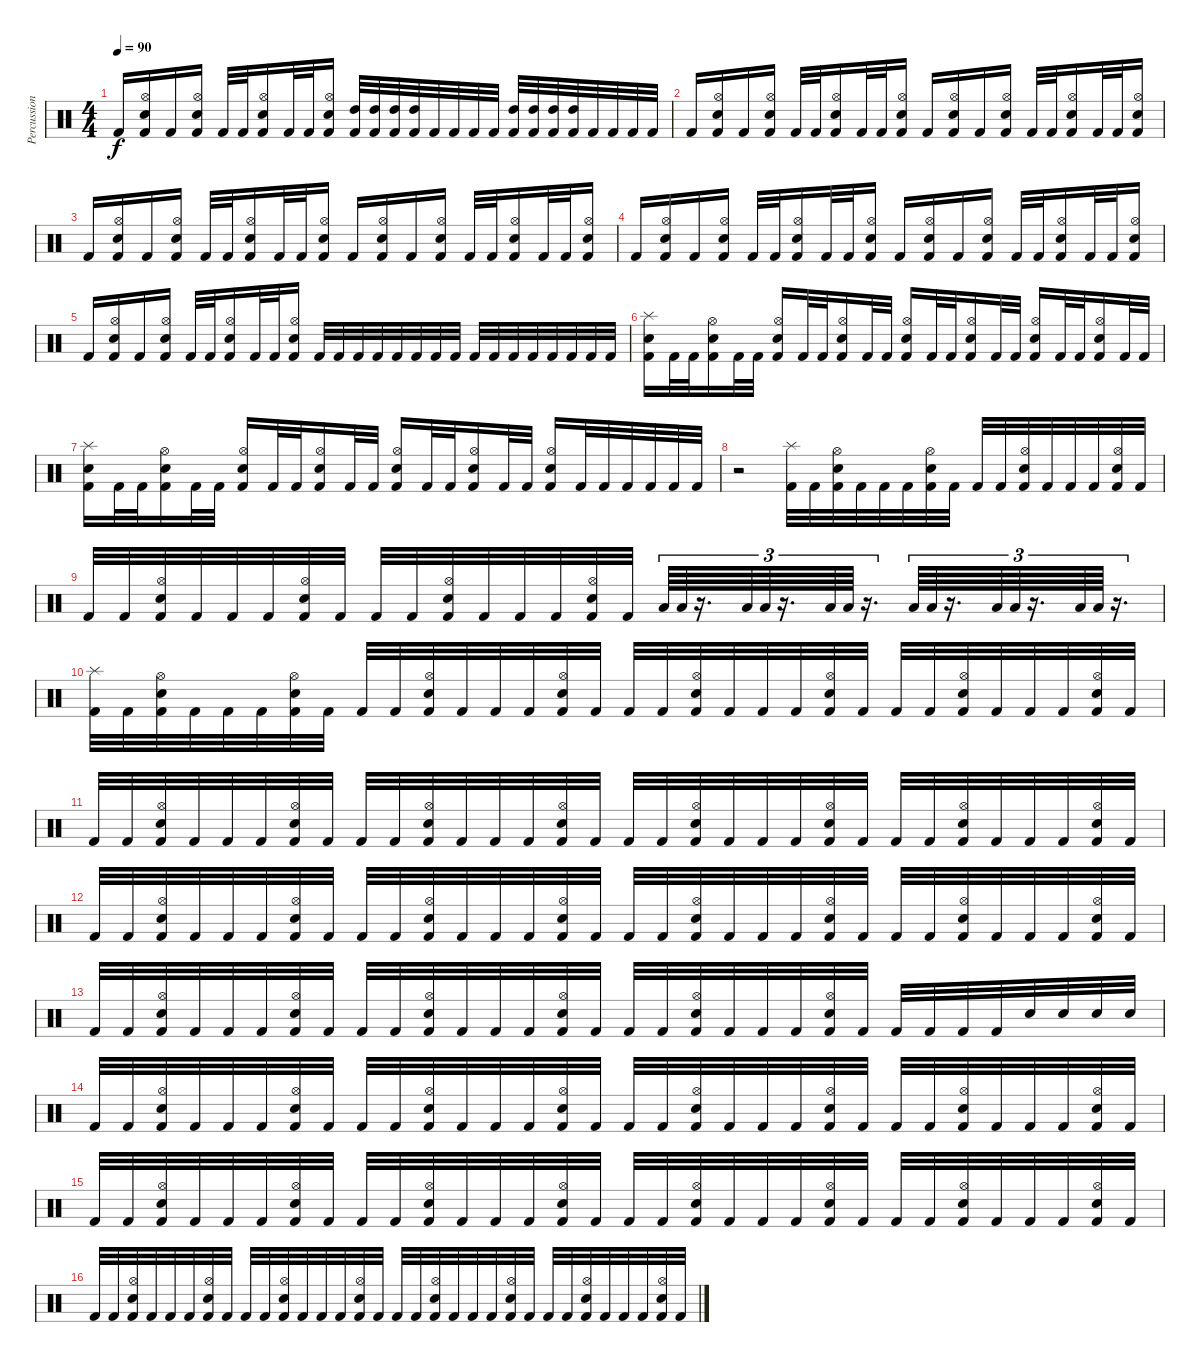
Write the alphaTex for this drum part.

\track ("Percussions" "Percussion") {instrument percussion}
\staff {score}
\articulation defaults
\ts (4 4)
\tempo 90
\clef neutral
\ks c "Kick (hit) 2".16{dy f}
("Hi-Hat (open)" "Electric Snare (hit)" "Kick (hit) 2").16 "Kick (hit) 2".16 ("Hi-Hat (open)" "Electric Snare (hit)" "Kick (hit) 2").16 "Kick (hit) 2".32 "Kick (hit) 2".32 ("Hi-Hat (open)" "Electric Snare (hit)" "Kick (hit) 2").16 "Kick (hit) 2".32 "Kick (hit) 2".32 ("Hi-Hat (open)" "Electric Snare (hit)" "Kick (hit) 2").16 ("High Tom (hit)" "Kick (hit) 2").32 ("High Tom (hit)" "Kick (hit) 2").32 ("High Tom (hit)" "Kick (hit) 2").32 ("High Tom (hit)" "Kick (hit) 2").32 "Kick (hit) 2".32 "Kick (hit) 2".32 "Kick (hit) 2".32 "Kick (hit) 2".32 ("High Tom (hit)" "Kick (hit) 2").32 ("High Tom (hit)" "Kick (hit) 2").32 ("High Tom (hit)" "Kick (hit) 2").32 ("High Tom (hit)" "Kick (hit) 2").32 "Kick (hit) 2".32 "Kick (hit) 2".32 "Kick (hit) 2".32 "Kick (hit) 2".32 |
"Kick (hit) 2".16 ("Hi-Hat (open)" "Electric Snare (hit)" "Kick (hit) 2").16 "Kick (hit) 2".16 ("Hi-Hat (open)" "Electric Snare (hit)" "Kick (hit) 2").16 "Kick (hit) 2".32 "Kick (hit) 2".32 ("Hi-Hat (open)" "Electric Snare (hit)" "Kick (hit) 2").16 "Kick (hit) 2".32 "Kick (hit) 2".32 ("Hi-Hat (open)" "Electric Snare (hit)" "Kick (hit) 2").16 "Kick (hit) 2".16 ("Hi-Hat (open)" "Electric Snare (hit)" "Kick (hit) 2").16 "Kick (hit) 2".16 ("Hi-Hat (open)" "Electric Snare (hit)" "Kick (hit) 2").16 "Kick (hit) 2".32 "Kick (hit) 2".32 ("Hi-Hat (open)" "Electric Snare (hit)" "Kick (hit) 2").16 "Kick (hit) 2".32 "Kick (hit) 2".32 ("Hi-Hat (open)" "Electric Snare (hit)" "Kick (hit) 2").16 |
"Kick (hit) 2".16 ("Hi-Hat (open)" "Electric Snare (hit)" "Kick (hit) 2").16 "Kick (hit) 2".16 ("Hi-Hat (open)" "Electric Snare (hit)" "Kick (hit) 2").16 "Kick (hit) 2".32 "Kick (hit) 2".32 ("Hi-Hat (open)" "Electric Snare (hit)" "Kick (hit) 2").16 "Kick (hit) 2".32 "Kick (hit) 2".32 ("Hi-Hat (open)" "Electric Snare (hit)" "Kick (hit) 2").16 "Kick (hit) 2".16 ("Hi-Hat (open)" "Electric Snare (hit)" "Kick (hit) 2").16 "Kick (hit) 2".16 ("Hi-Hat (open)" "Electric Snare (hit)" "Kick (hit) 2").16 "Kick (hit) 2".32 "Kick (hit) 2".32 ("Hi-Hat (open)" "Electric Snare (hit)" "Kick (hit) 2").16 "Kick (hit) 2".32 "Kick (hit) 2".32 ("Hi-Hat (open)" "Electric Snare (hit)" "Kick (hit) 2").16 |
"Kick (hit) 2".16 ("Hi-Hat (open)" "Electric Snare (hit)" "Kick (hit) 2").16 "Kick (hit) 2".16 ("Hi-Hat (open)" "Electric Snare (hit)" "Kick (hit) 2").16 "Kick (hit) 2".32 "Kick (hit) 2".32 ("Hi-Hat (open)" "Electric Snare (hit)" "Kick (hit) 2").16 "Kick (hit) 2".32 "Kick (hit) 2".32 ("Hi-Hat (open)" "Electric Snare (hit)" "Kick (hit) 2").16 "Kick (hit) 2".16 ("Hi-Hat (open)" "Electric Snare (hit)" "Kick (hit) 2").16 "Kick (hit) 2".16 ("Hi-Hat (open)" "Electric Snare (hit)" "Kick (hit) 2").16 "Kick (hit) 2".32 "Kick (hit) 2".32 ("Hi-Hat (open)" "Electric Snare (hit)" "Kick (hit) 2").16 "Kick (hit) 2".32 "Kick (hit) 2".32 ("Hi-Hat (open)" "Electric Snare (hit)" "Kick (hit) 2").16 |
"Kick (hit) 2".16 ("Hi-Hat (open)" "Electric Snare (hit)" "Kick (hit) 2").16 "Kick (hit) 2".16 ("Hi-Hat (open)" "Electric Snare (hit)" "Kick (hit) 2").16 "Kick (hit) 2".32 "Kick (hit) 2".32 ("Hi-Hat (open)" "Electric Snare (hit)" "Kick (hit) 2").16 "Kick (hit) 2".32 "Kick (hit) 2".32 ("Hi-Hat (open)" "Electric Snare (hit)" "Kick (hit) 2").16 "Kick (hit) 2".32 "Kick (hit) 2".32 "Kick (hit) 2".32 "Kick (hit) 2".32 "Kick (hit) 2".32 "Kick (hit) 2".32 "Kick (hit) 2".32 "Kick (hit) 2".32 "Kick (hit) 2".32 "Kick (hit) 2".32 "Kick (hit) 2".32 "Kick (hit) 2".32 "Kick (hit) 2".32 "Kick (hit) 2".32 "Kick (hit) 2".32 "Kick (hit) 2".32 |
("Splash (hit)" "Electric Snare (hit)" "Kick (hit) 2").16 "Kick (hit) 2".32 "Kick (hit) 2".32 ("Hi-Hat (open)" "Electric Snare (hit)" "Kick (hit) 2").16 "Kick (hit) 2".32 "Kick (hit) 2".32 ("Hi-Hat (open)" "Electric Snare (hit)" "Kick (hit) 2").16 "Kick (hit) 2".32 "Kick (hit) 2".32 ("Hi-Hat (open)" "Electric Snare (hit)" "Kick (hit) 2").16 "Kick (hit) 2".32 "Kick (hit) 2".32 ("Hi-Hat (open)" "Electric Snare (hit)" "Kick (hit) 2").16 "Kick (hit) 2".32 "Kick (hit) 2".32 ("Hi-Hat (open)" "Electric Snare (hit)" "Kick (hit) 2").16 "Kick (hit) 2".32 "Kick (hit) 2".32 ("Hi-Hat (open)" "Electric Snare (hit)" "Kick (hit) 2").16 "Kick (hit) 2".32 "Kick (hit) 2".32 ("Hi-Hat (open)" "Electric Snare (hit)" "Kick (hit) 2").16 "Kick (hit) 2".32 "Kick (hit) 2".32 |
("Splash (hit)" "Electric Snare (hit)" "Kick (hit) 2").16 "Kick (hit) 2".32 "Kick (hit) 2".32 ("Hi-Hat (open)" "Electric Snare (hit)" "Kick (hit) 2").16 "Kick (hit) 2".32 "Kick (hit) 2".32 ("Hi-Hat (open)" "Electric Snare (hit)" "Kick (hit) 2").16 "Kick (hit) 2".32 "Kick (hit) 2".32 ("Hi-Hat (open)" "Electric Snare (hit)" "Kick (hit) 2").16 "Kick (hit) 2".32 "Kick (hit) 2".32 ("Hi-Hat (open)" "Electric Snare (hit)" "Kick (hit) 2").16 "Kick (hit) 2".32 "Kick (hit) 2".32 ("Hi-Hat (open)" "Electric Snare (hit)" "Kick (hit) 2").16 "Kick (hit) 2".32 "Kick (hit) 2".32 ("Hi-Hat (open)" "Electric Snare (hit)" "Kick (hit) 2").16 "Kick (hit) 2".32 "Kick (hit) 2".32 "Kick (hit) 2".32 "Kick (hit) 2".32 "Kick (hit) 2".32 "Kick (hit) 2".32 |
r.2 ("Splash (hit)" "Kick (hit) 2").32 "Kick (hit) 2".32 ("Hi-Hat (open)" "Electric Snare (hit)" "Kick (hit) 2").32 "Kick (hit) 2".32 "Kick (hit) 2".32 "Kick (hit) 2".32 ("Hi-Hat (open)" "Electric Snare (hit)" "Kick (hit) 2").32 "Kick (hit) 2".32 "Kick (hit) 2".32 "Kick (hit) 2".32 ("Hi-Hat (open)" "Electric Snare (hit)" "Kick (hit) 2").32 "Kick (hit) 2".32 "Kick (hit) 2".32 "Kick (hit) 2".32 ("Hi-Hat (open)" "Electric Snare (hit)" "Kick (hit) 2").32 "Kick (hit) 2".32 |
"Kick (hit) 2".32 "Kick (hit) 2".32 ("Hi-Hat (open)" "Electric Snare (hit)" "Kick (hit) 2").32 "Kick (hit) 2".32 "Kick (hit) 2".32 "Kick (hit) 2".32 ("Hi-Hat (open)" "Electric Snare (hit)" "Kick (hit) 2").32 "Kick (hit) 2".32 "Kick (hit) 2".32 "Kick (hit) 2".32 ("Hi-Hat (open)" "Electric Snare (hit)" "Kick (hit) 2").32 "Kick (hit) 2".32 "Kick (hit) 2".32 "Kick (hit) 2".32 ("Hi-Hat (open)" "Electric Snare (hit)" "Kick (hit) 2").32 "Kick (hit) 2".32 "Low Tom (hit)".64{tu (3 2)} "Low Tom (hit)".64{tu (3 2)} r.16{d tu (3 2)} "Low Tom (hit)".64{tu (3 2)} "Low Tom (hit)".64{tu (3 2)} r.16{d tu (3 2)} "Low Tom (hit)".64{tu (3 2)} "Low Tom (hit)".64{tu (3 2)} r.16{d tu (3 2)} "Low Tom (hit)".64{tu (3 2)} "Low Tom (hit)".64{tu (3 2)} r.16{d tu (3 2)} "Low Tom (hit)".64{tu (3 2)} "Low Tom (hit)".64{tu (3 2)} r.16{d tu (3 2)} "Low Tom (hit)".64{tu (3 2)} "Low Tom (hit)".64{tu (3 2)} r.16{d tu (3 2)} |
("Splash (hit)" "Kick (hit) 2").32 "Kick (hit) 2".32 ("Hi-Hat (open)" "Electric Snare (hit)" "Kick (hit) 2").32 "Kick (hit) 2".32 "Kick (hit) 2".32 "Kick (hit) 2".32 ("Hi-Hat (open)" "Electric Snare (hit)" "Kick (hit) 2").32 "Kick (hit) 2".32 "Kick (hit) 2".32 "Kick (hit) 2".32 ("Hi-Hat (open)" "Electric Snare (hit)" "Kick (hit) 2").32 "Kick (hit) 2".32 "Kick (hit) 2".32 "Kick (hit) 2".32 ("Hi-Hat (open)" "Electric Snare (hit)" "Kick (hit) 2").32 "Kick (hit) 2".32 "Kick (hit) 2".32 "Kick (hit) 2".32 ("Hi-Hat (open)" "Electric Snare (hit)" "Kick (hit) 2").32 "Kick (hit) 2".32 "Kick (hit) 2".32 "Kick (hit) 2".32 ("Hi-Hat (open)" "Electric Snare (hit)" "Kick (hit) 2").32 "Kick (hit) 2".32 "Kick (hit) 2".32 "Kick (hit) 2".32 ("Hi-Hat (open)" "Electric Snare (hit)" "Kick (hit) 2").32 "Kick (hit) 2".32 "Kick (hit) 2".32 "Kick (hit) 2".32 ("Hi-Hat (open)" "Electric Snare (hit)" "Kick (hit) 2").32 "Kick (hit) 2".32 |
"Kick (hit) 2".32 "Kick (hit) 2".32 ("Hi-Hat (open)" "Electric Snare (hit)" "Kick (hit) 2").32 "Kick (hit) 2".32 "Kick (hit) 2".32 "Kick (hit) 2".32 ("Hi-Hat (open)" "Electric Snare (hit)" "Kick (hit) 2").32 "Kick (hit) 2".32 "Kick (hit) 2".32 "Kick (hit) 2".32 ("Hi-Hat (open)" "Electric Snare (hit)" "Kick (hit) 2").32 "Kick (hit) 2".32 "Kick (hit) 2".32 "Kick (hit) 2".32 ("Hi-Hat (open)" "Electric Snare (hit)" "Kick (hit) 2").32 "Kick (hit) 2".32 "Kick (hit) 2".32 "Kick (hit) 2".32 ("Hi-Hat (open)" "Electric Snare (hit)" "Kick (hit) 2").32 "Kick (hit) 2".32 "Kick (hit) 2".32 "Kick (hit) 2".32 ("Hi-Hat (open)" "Electric Snare (hit)" "Kick (hit) 2").32 "Kick (hit) 2".32 "Kick (hit) 2".32 "Kick (hit) 2".32 ("Hi-Hat (open)" "Electric Snare (hit)" "Kick (hit) 2").32 "Kick (hit) 2".32 "Kick (hit) 2".32 "Kick (hit) 2".32 ("Hi-Hat (open)" "Electric Snare (hit)" "Kick (hit) 2").32 "Kick (hit) 2".32 |
"Kick (hit) 2".32 "Kick (hit) 2".32 ("Hi-Hat (open)" "Electric Snare (hit)" "Kick (hit) 2").32 "Kick (hit) 2".32 "Kick (hit) 2".32 "Kick (hit) 2".32 ("Hi-Hat (open)" "Electric Snare (hit)" "Kick (hit) 2").32 "Kick (hit) 2".32 "Kick (hit) 2".32 "Kick (hit) 2".32 ("Hi-Hat (open)" "Electric Snare (hit)" "Kick (hit) 2").32 "Kick (hit) 2".32 "Kick (hit) 2".32 "Kick (hit) 2".32 ("Hi-Hat (open)" "Electric Snare (hit)" "Kick (hit) 2").32 "Kick (hit) 2".32 "Kick (hit) 2".32 "Kick (hit) 2".32 ("Hi-Hat (open)" "Electric Snare (hit)" "Kick (hit) 2").32 "Kick (hit) 2".32 "Kick (hit) 2".32 "Kick (hit) 2".32 ("Hi-Hat (open)" "Electric Snare (hit)" "Kick (hit) 2").32 "Kick (hit) 2".32 "Kick (hit) 2".32 "Kick (hit) 2".32 ("Hi-Hat (open)" "Electric Snare (hit)" "Kick (hit) 2").32 "Kick (hit) 2".32 "Kick (hit) 2".32 "Kick (hit) 2".32 ("Hi-Hat (open)" "Electric Snare (hit)" "Kick (hit) 2").32 "Kick (hit) 2".32 |
"Kick (hit) 2".32 "Kick (hit) 2".32 ("Hi-Hat (open)" "Electric Snare (hit)" "Kick (hit) 2").32 "Kick (hit) 2".32 "Kick (hit) 2".32 "Kick (hit) 2".32 ("Hi-Hat (open)" "Electric Snare (hit)" "Kick (hit) 2").32 "Kick (hit) 2".32 "Kick (hit) 2".32 "Kick (hit) 2".32 ("Hi-Hat (open)" "Electric Snare (hit)" "Kick (hit) 2").32 "Kick (hit) 2".32 "Kick (hit) 2".32 "Kick (hit) 2".32 ("Hi-Hat (open)" "Electric Snare (hit)" "Kick (hit) 2").32 "Kick (hit) 2".32 "Kick (hit) 2".32 "Kick (hit) 2".32 ("Hi-Hat (open)" "Electric Snare (hit)" "Kick (hit) 2").32 "Kick (hit) 2".32 "Kick (hit) 2".32 "Kick (hit) 2".32 ("Hi-Hat (open)" "Electric Snare (hit)" "Kick (hit) 2").32 "Kick (hit) 2".32 "Kick (hit) 2".32 "Kick (hit) 2".32 "Kick (hit) 2".32 "Kick (hit) 2".32 "Electric Snare (hit)".32 "Electric Snare (hit)".32 "Electric Snare (hit)".32 "Electric Snare (hit)".32 |
"Kick (hit) 2".32 "Kick (hit) 2".32 ("Hi-Hat (open)" "Electric Snare (hit)" "Kick (hit) 2").32 "Kick (hit) 2".32 "Kick (hit) 2".32 "Kick (hit) 2".32 ("Hi-Hat (open)" "Electric Snare (hit)" "Kick (hit) 2").32 "Kick (hit) 2".32 "Kick (hit) 2".32 "Kick (hit) 2".32 ("Hi-Hat (open)" "Electric Snare (hit)" "Kick (hit) 2").32 "Kick (hit) 2".32 "Kick (hit) 2".32 "Kick (hit) 2".32 ("Hi-Hat (open)" "Electric Snare (hit)" "Kick (hit) 2").32 "Kick (hit) 2".32 "Kick (hit) 2".32 "Kick (hit) 2".32 ("Hi-Hat (open)" "Electric Snare (hit)" "Kick (hit) 2").32 "Kick (hit) 2".32 "Kick (hit) 2".32 "Kick (hit) 2".32 ("Hi-Hat (open)" "Electric Snare (hit)" "Kick (hit) 2").32 "Kick (hit) 2".32 "Kick (hit) 2".32 "Kick (hit) 2".32 ("Hi-Hat (open)" "Electric Snare (hit)" "Kick (hit) 2").32 "Kick (hit) 2".32 "Kick (hit) 2".32 "Kick (hit) 2".32 ("Hi-Hat (open)" "Electric Snare (hit)" "Kick (hit) 2").32 "Kick (hit) 2".32 |
"Kick (hit) 2".32 "Kick (hit) 2".32 ("Hi-Hat (open)" "Electric Snare (hit)" "Kick (hit) 2").32 "Kick (hit) 2".32 "Kick (hit) 2".32 "Kick (hit) 2".32 ("Hi-Hat (open)" "Electric Snare (hit)" "Kick (hit) 2").32 "Kick (hit) 2".32 "Kick (hit) 2".32 "Kick (hit) 2".32 ("Hi-Hat (open)" "Electric Snare (hit)" "Kick (hit) 2").32 "Kick (hit) 2".32 "Kick (hit) 2".32 "Kick (hit) 2".32 ("Hi-Hat (open)" "Electric Snare (hit)" "Kick (hit) 2").32 "Kick (hit) 2".32 "Kick (hit) 2".32 "Kick (hit) 2".32 ("Hi-Hat (open)" "Electric Snare (hit)" "Kick (hit) 2").32 "Kick (hit) 2".32 "Kick (hit) 2".32 "Kick (hit) 2".32 ("Hi-Hat (open)" "Electric Snare (hit)" "Kick (hit) 2").32 "Kick (hit) 2".32 "Kick (hit) 2".32 "Kick (hit) 2".32 ("Hi-Hat (open)" "Electric Snare (hit)" "Kick (hit) 2").32 "Kick (hit) 2".32 "Kick (hit) 2".32 "Kick (hit) 2".32 ("Hi-Hat (open)" "Electric Snare (hit)" "Kick (hit) 2").32 "Kick (hit) 2".32 |
"Kick (hit) 2".32 "Kick (hit) 2".32 ("Hi-Hat (open)" "Electric Snare (hit)" "Kick (hit) 2").32 "Kick (hit) 2".32 "Kick (hit) 2".32 "Kick (hit) 2".32 ("Hi-Hat (open)" "Electric Snare (hit)" "Kick (hit) 2").32 "Kick (hit) 2".32 "Kick (hit) 2".32 "Kick (hit) 2".32 ("Hi-Hat (open)" "Electric Snare (hit)" "Kick (hit) 2").32 "Kick (hit) 2".32 "Kick (hit) 2".32 "Kick (hit) 2".32 ("Hi-Hat (open)" "Electric Snare (hit)" "Kick (hit) 2").32 "Kick (hit) 2".32 "Kick (hit) 2".32 "Kick (hit) 2".32 ("Hi-Hat (open)" "Electric Snare (hit)" "Kick (hit) 2").32 "Kick (hit) 2".32 "Kick (hit) 2".32 "Kick (hit) 2".32 ("Hi-Hat (open)" "Electric Snare (hit)" "Kick (hit) 2").32 "Kick (hit) 2".32 "Kick (hit) 2".32 "Kick (hit) 2".32 ("Hi-Hat (open)" "Electric Snare (hit)" "Kick (hit) 2").32 "Kick (hit) 2".32 "Kick (hit) 2".32 "Kick (hit) 2".32 ("Hi-Hat (open)" "Electric Snare (hit)" "Kick (hit) 2").32 "Kick (hit) 2".32
